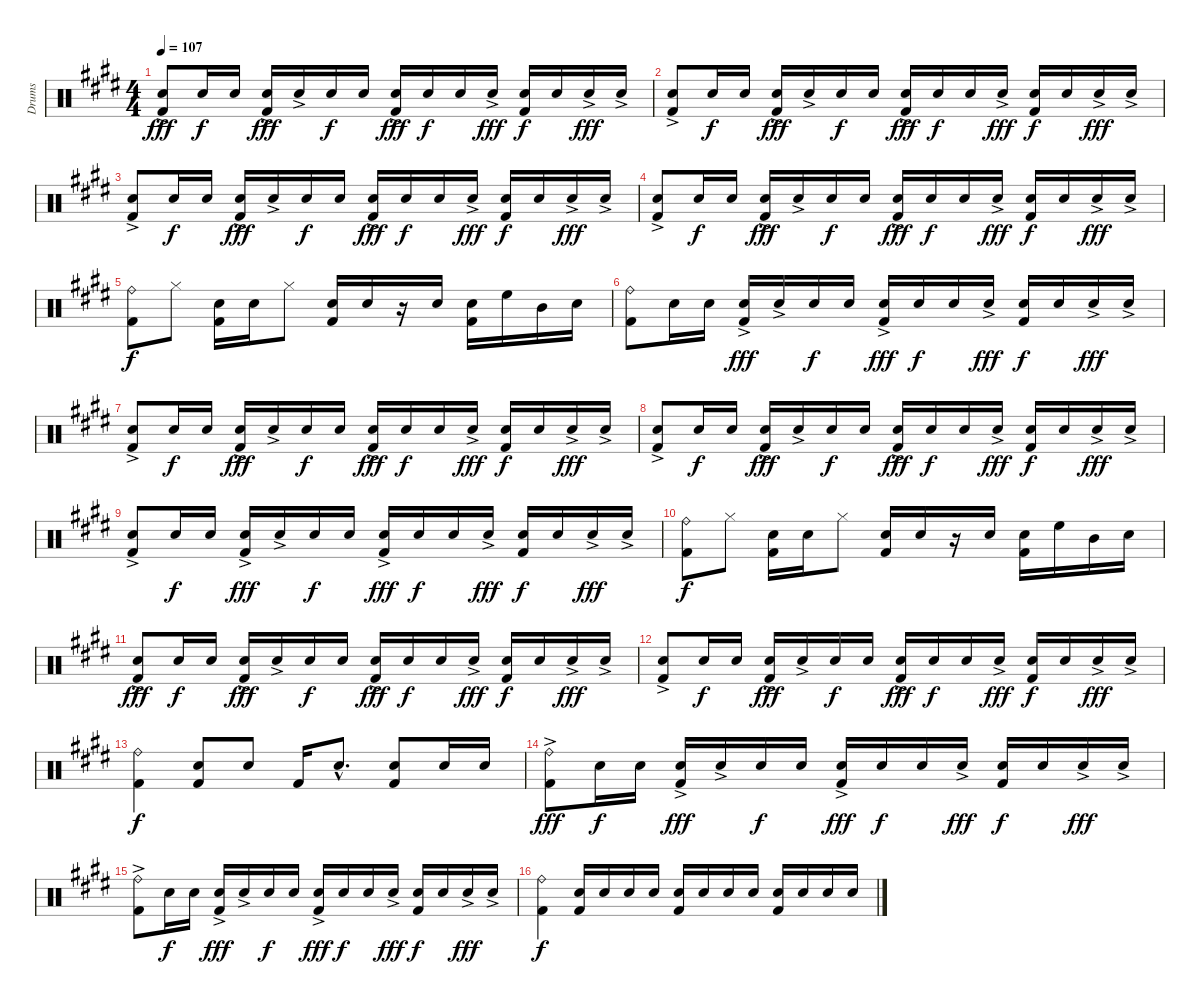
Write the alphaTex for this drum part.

\track ("Drums" "Drums") {instrument percussion}
\staff {score}
\articulation defaults
\ts (4 4)
\tempo 107
\clef neutral
\ks c#minor
("Electric Snare (hit)"{ac} "Kick (hit) 2").8{dy fff} "Electric Snare (hit)".16{dy f} "Electric Snare (hit)".16 ("Electric Snare (hit)"{ac} "Kick (hit) 2").16{dy fff} "Electric Snare (hit)"{ac}.16 "Electric Snare (hit)".16{dy f} "Electric Snare (hit)".16 ("Electric Snare (hit)"{ac} "Kick (hit) 2").16{dy fff} "Electric Snare (hit)".16{dy f} "Electric Snare (hit)".16 "Electric Snare (hit)"{ac}.16{dy fff} ("Electric Snare (hit)" "Kick (hit) 2").16{dy f} "Electric Snare (hit)".16 "Electric Snare (hit)"{ac}.16{dy fff} "Electric Snare (hit)"{ac}.16 |
("Electric Snare (hit)"{ac} "Kick (hit) 2").8 "Electric Snare (hit)".16{dy f} "Electric Snare (hit)".16 ("Electric Snare (hit)"{ac} "Kick (hit) 2").16{dy fff} "Electric Snare (hit)"{ac}.16 "Electric Snare (hit)".16{dy f} "Electric Snare (hit)".16 ("Electric Snare (hit)"{ac} "Kick (hit) 2").16{dy fff} "Electric Snare (hit)".16{dy f} "Electric Snare (hit)".16 "Electric Snare (hit)"{ac}.16{dy fff} ("Electric Snare (hit)" "Kick (hit) 2").16{dy f} "Electric Snare (hit)".16 "Electric Snare (hit)"{ac}.16{dy fff} "Electric Snare (hit)"{ac}.16 |
("Electric Snare (hit)"{ac} "Kick (hit) 2").8 "Electric Snare (hit)".16{dy f} "Electric Snare (hit)".16 ("Electric Snare (hit)"{ac} "Kick (hit) 2").16{dy fff} "Electric Snare (hit)"{ac}.16 "Electric Snare (hit)".16{dy f} "Electric Snare (hit)".16 ("Electric Snare (hit)"{ac} "Kick (hit) 2").16{dy fff} "Electric Snare (hit)".16{dy f} "Electric Snare (hit)".16 "Electric Snare (hit)"{ac}.16{dy fff} ("Electric Snare (hit)" "Kick (hit) 2").16{dy f} "Electric Snare (hit)".16 "Electric Snare (hit)"{ac}.16{dy fff} "Electric Snare (hit)"{ac}.16 |
("Electric Snare (hit)"{ac} "Kick (hit) 2").8 "Electric Snare (hit)".16{dy f} "Electric Snare (hit)".16 ("Electric Snare (hit)"{ac} "Kick (hit) 2").16{dy fff} "Electric Snare (hit)"{ac}.16 "Electric Snare (hit)".16{dy f} "Electric Snare (hit)".16 ("Electric Snare (hit)"{ac} "Kick (hit) 2").16{dy fff} "Electric Snare (hit)".16{dy f} "Electric Snare (hit)".16 "Electric Snare (hit)"{ac}.16{dy fff} ("Electric Snare (hit)" "Kick (hit) 2").16{dy f} "Electric Snare (hit)".16 "Electric Snare (hit)"{ac}.16{dy fff} "Electric Snare (hit)"{ac}.16 |
("Ride (bell)" "Kick (hit) 2").8{dy f} "Hi-Hat (closed)".8 ("Electric Snare (hit)" "Kick (hit) 2").16 "Electric Snare (hit)".16 "Hi-Hat (closed)".8 ("Electric Snare (hit)" "Kick (hit) 2").16 "Electric Snare (hit)".16 r.16 "Electric Snare (hit)".16 ("Electric Snare (hit)" "Kick (hit) 2").16 "High Floor Tom (hit)".16 "Mid Tom (hit)".16 "Snare (hit) 2".16 |
("Ride (bell)" "Kick (hit) 2").8 "Electric Snare (hit)".16 "Electric Snare (hit)".16 ("Electric Snare (hit)"{ac} "Kick (hit) 2").16{dy fff} "Electric Snare (hit)"{ac}.16 "Electric Snare (hit)".16{dy f} "Electric Snare (hit)".16 ("Electric Snare (hit)"{ac} "Kick (hit) 2").16{dy fff} "Electric Snare (hit)".16{dy f} "Electric Snare (hit)".16 "Electric Snare (hit)"{ac}.16{dy fff} ("Electric Snare (hit)" "Kick (hit) 2").16{dy f} "Electric Snare (hit)".16 "Electric Snare (hit)"{ac}.16{dy fff} "Electric Snare (hit)"{ac}.16 |
("Electric Snare (hit)"{ac} "Kick (hit) 2").8 "Electric Snare (hit)".16{dy f} "Electric Snare (hit)".16 ("Electric Snare (hit)"{ac} "Kick (hit) 2").16{dy fff} "Electric Snare (hit)"{ac}.16 "Electric Snare (hit)".16{dy f} "Electric Snare (hit)".16 ("Electric Snare (hit)"{ac} "Kick (hit) 2").16{dy fff} "Electric Snare (hit)".16{dy f} "Electric Snare (hit)".16 "Electric Snare (hit)"{ac}.16{dy fff} ("Electric Snare (hit)" "Kick (hit) 2").16{dy f} "Electric Snare (hit)".16 "Electric Snare (hit)"{ac}.16{dy fff} "Electric Snare (hit)"{ac}.16 |
("Electric Snare (hit)"{ac} "Kick (hit) 2").8 "Electric Snare (hit)".16{dy f} "Electric Snare (hit)".16 ("Electric Snare (hit)"{ac} "Kick (hit) 2").16{dy fff} "Electric Snare (hit)"{ac}.16 "Electric Snare (hit)".16{dy f} "Electric Snare (hit)".16 ("Electric Snare (hit)"{ac} "Kick (hit) 2").16{dy fff} "Electric Snare (hit)".16{dy f} "Electric Snare (hit)".16 "Electric Snare (hit)"{ac}.16{dy fff} ("Electric Snare (hit)" "Kick (hit) 2").16{dy f} "Electric Snare (hit)".16 "Electric Snare (hit)"{ac}.16{dy fff} "Electric Snare (hit)"{ac}.16 |
("Electric Snare (hit)"{ac} "Kick (hit) 2").8 "Electric Snare (hit)".16{dy f} "Electric Snare (hit)".16 ("Electric Snare (hit)"{ac} "Kick (hit) 2").16{dy fff} "Electric Snare (hit)"{ac}.16 "Electric Snare (hit)".16{dy f} "Electric Snare (hit)".16 ("Electric Snare (hit)"{ac} "Kick (hit) 2").16{dy fff} "Electric Snare (hit)".16{dy f} "Electric Snare (hit)".16 "Electric Snare (hit)"{ac}.16{dy fff} ("Electric Snare (hit)" "Kick (hit) 2").16{dy f} "Electric Snare (hit)".16 "Electric Snare (hit)"{ac}.16{dy fff} "Electric Snare (hit)"{ac}.16 |
("Ride (bell)" "Kick (hit) 2").8{dy f} "Hi-Hat (closed)".8 ("Electric Snare (hit)" "Kick (hit) 2").16 "Electric Snare (hit)".16 "Hi-Hat (closed)".8 ("Electric Snare (hit)" "Kick (hit) 2").16 "Electric Snare (hit)".16 r.16 "Electric Snare (hit)".16 ("Electric Snare (hit)" "Kick (hit) 2").16 "High Floor Tom (hit)".16 "Mid Tom (hit)".16 "Snare (hit) 2".16 |
("Electric Snare (hit)"{ac} "Kick (hit) 2").8{dy fff} "Electric Snare (hit)".16{dy f} "Electric Snare (hit)".16 ("Electric Snare (hit)"{ac} "Kick (hit) 2").16{dy fff} "Electric Snare (hit)"{ac}.16 "Electric Snare (hit)".16{dy f} "Electric Snare (hit)".16 ("Electric Snare (hit)"{ac} "Kick (hit) 2").16{dy fff} "Electric Snare (hit)".16{dy f} "Electric Snare (hit)".16 "Electric Snare (hit)"{ac}.16{dy fff} ("Electric Snare (hit)" "Kick (hit) 2").16{dy f} "Electric Snare (hit)".16 "Electric Snare (hit)"{ac}.16{dy fff} "Electric Snare (hit)"{ac}.16 |
("Electric Snare (hit)"{ac} "Kick (hit) 2").8 "Electric Snare (hit)".16{dy f} "Electric Snare (hit)".16 ("Electric Snare (hit)"{ac} "Kick (hit) 2").16{dy fff} "Electric Snare (hit)"{ac}.16 "Electric Snare (hit)".16{dy f} "Electric Snare (hit)".16 ("Electric Snare (hit)"{ac} "Kick (hit) 2").16{dy fff} "Electric Snare (hit)".16{dy f} "Electric Snare (hit)".16 "Electric Snare (hit)"{ac}.16{dy fff} ("Electric Snare (hit)" "Kick (hit) 2").16{dy f} "Electric Snare (hit)".16 "Electric Snare (hit)"{ac}.16{dy fff} "Electric Snare (hit)"{ac}.16 |
("Ride (bell)" "Kick (hit) 2").4{dy f} ("Electric Snare (hit)" "Kick (hit) 2").8 "Electric Snare (hit)".8 "Kick (hit) 2".16 "Electric Snare (hit)"{hac}.8{d} ("Electric Snare (hit)" "Kick (hit) 2").8 "Electric Snare (hit)".16 "Electric Snare (hit)".16 |
("Ride (bell)"{ac} "Kick (hit) 2").8{dy fff} "Electric Snare (hit)".16{dy f} "Electric Snare (hit)".16 ("Electric Snare (hit)"{ac} "Kick (hit) 2").16{dy fff} "Electric Snare (hit)"{ac}.16 "Electric Snare (hit)".16{dy f} "Electric Snare (hit)".16 ("Electric Snare (hit)"{ac} "Kick (hit) 2").16{dy fff} "Electric Snare (hit)".16{dy f} "Electric Snare (hit)".16 "Electric Snare (hit)"{ac}.16{dy fff} ("Electric Snare (hit)" "Kick (hit) 2").16{dy f} "Electric Snare (hit)".16 "Electric Snare (hit)"{ac}.16{dy fff} "Electric Snare (hit)"{ac}.16 |
("Ride (bell)"{ac} "Kick (hit) 2").8 "Electric Snare (hit)".16{dy f} "Electric Snare (hit)".16 ("Electric Snare (hit)"{ac} "Kick (hit) 2").16{dy fff} "Electric Snare (hit)"{ac}.16 "Electric Snare (hit)".16{dy f} "Electric Snare (hit)".16 ("Electric Snare (hit)"{ac} "Kick (hit) 2").16{dy fff} "Electric Snare (hit)".16{dy f} "Electric Snare (hit)".16 "Electric Snare (hit)"{ac}.16{dy fff} ("Electric Snare (hit)" "Kick (hit) 2").16{dy f} "Electric Snare (hit)".16 "Electric Snare (hit)"{ac}.16{dy fff} "Electric Snare (hit)"{ac}.16 |
("Ride (bell)" "Kick (hit) 2").4{dy f} ("Electric Snare (hit)" "Kick (hit) 2").16 "Electric Snare (hit)".16 "Electric Snare (hit)".16 "Electric Snare (hit)".16 ("Electric Snare (hit)" "Kick (hit) 2").16 "Electric Snare (hit)".16 "Electric Snare (hit)".16 "Electric Snare (hit)".16 ("Electric Snare (hit)" "Kick (hit) 2").16 "Electric Snare (hit)".16 "Electric Snare (hit)".16 "Electric Snare (hit)".16
